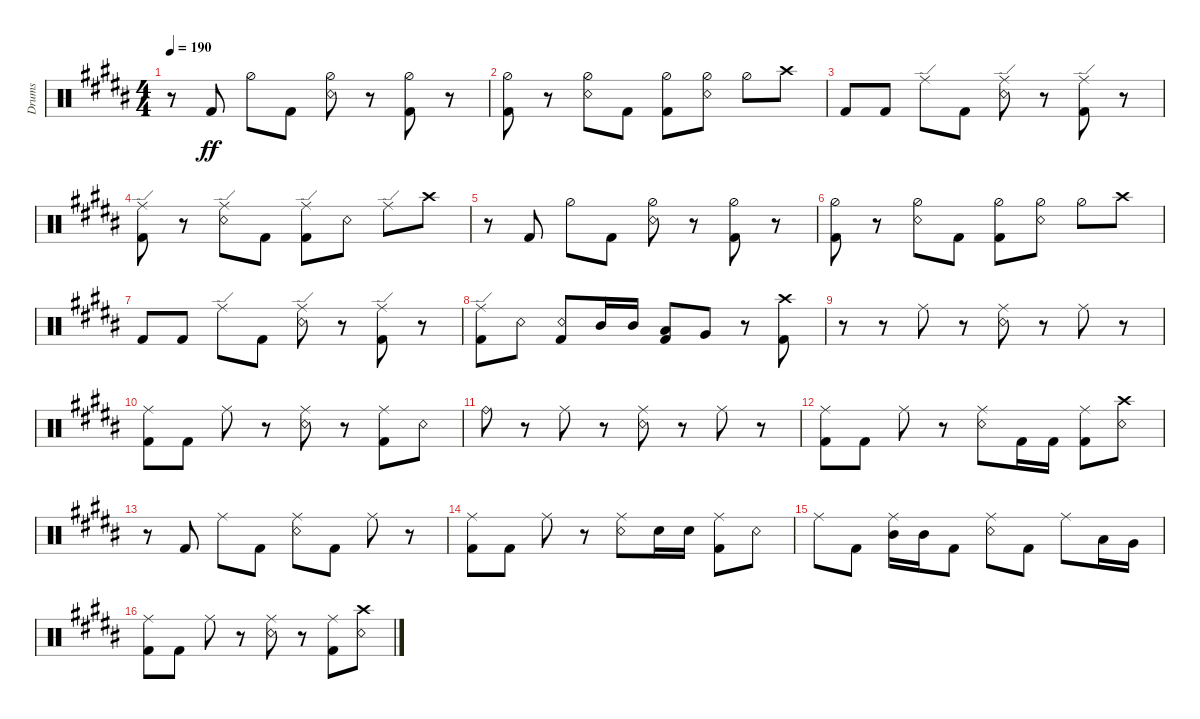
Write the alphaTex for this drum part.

\bracketExtendMode groupsimilarinstruments
\otherSystemsTrackNameOrientation horizontal
\track ("Drumkit" "Drums") {instrument percussion}
\staff {score}
\articulation defaults
\ts (4 4)
\tempo 190
\clef neutral
\ks b
r.8{dy ff} "Kick (hit) 2"{acc forcenatural}.8 "Hi-Hat (half)"{acc forcenatural}.8 "Kick (hit) 2"{acc forcenatural}.8 ("Snare (rim shot)"{acc forcenatural} "Hi-Hat (half)"{acc forcenatural}).8 r.8 ("Kick (hit) 2"{acc forcenatural} "Hi-Hat (half)"{acc forcenatural}).8 r.8 |
("Kick (hit) 2"{acc forcenatural} "Hi-Hat (half)"{acc forcenatural}).8 r.8 ("Snare (rim shot)"{acc forcenatural} "Hi-Hat (half)"{acc forcenatural}).8 "Kick (hit) 2"{acc forcenatural}.8 ("Kick (hit) 2"{acc forcenatural} "Hi-Hat (half)"{acc forcenatural}).8 ("Snare (rim shot)"{acc forcenatural} "Hi-Hat (half)"{acc forcenatural}).8 "Hi-Hat (half)"{acc forcenatural}.8 "Crash high (hit)"{acc forcenatural}.8 |
"Kick (hit) 2"{acc forcenatural}.8 "Kick (hit) 2"{acc forcenatural}.8 "Ride (edge)"{acc forcenatural}.8 "Kick (hit) 2"{acc forcenatural}.8 ("Snare (rim shot)"{acc forcenatural} "Ride (edge)"{acc forcenatural}).8 r.8 ("Kick (hit) 2"{acc forcenatural} "Ride (edge)"{acc forcenatural}).8 r.8 |
("Kick (hit) 2"{acc forcenatural} "Ride (edge)"{acc forcenatural}).8 r.8 ("Snare (rim shot)"{acc forcenatural} "Ride (edge)"{acc forcenatural}).8 "Kick (hit) 2"{acc forcenatural}.8 ("Kick (hit) 2"{acc forcenatural} "Ride (edge)"{acc forcenatural}).8 "Snare (rim shot)"{acc forcenatural}.8 "Ride (edge)"{acc forcenatural}.8 "Crash high (hit)"{acc forcenatural}.8 |
r.8 "Kick (hit) 2"{acc forcenatural}.8 "Hi-Hat (half)"{acc forcenatural}.8 "Kick (hit) 2"{acc forcenatural}.8 ("Snare (rim shot)"{acc forcenatural} "Hi-Hat (half)"{acc forcenatural}).8 r.8 ("Kick (hit) 2"{acc forcenatural} "Hi-Hat (half)"{acc forcenatural}).8 r.8 |
("Kick (hit) 2"{acc forcenatural} "Hi-Hat (half)"{acc forcenatural}).8 r.8 ("Snare (rim shot)"{acc forcenatural} "Hi-Hat (half)"{acc forcenatural}).8 "Kick (hit) 2"{acc forcenatural}.8 ("Kick (hit) 2"{acc forcenatural} "Hi-Hat (half)"{acc forcenatural}).8 ("Snare (rim shot)"{acc forcenatural} "Hi-Hat (half)"{acc forcenatural}).8 "Hi-Hat (half)"{acc forcenatural}.8 "Crash high (hit)"{acc forcenatural}.8 |
"Kick (hit) 2"{acc forcenatural}.8 "Kick (hit) 2"{acc forcenatural}.8 "Ride (edge)"{acc forcenatural}.8 "Kick (hit) 2"{acc forcenatural}.8 ("Snare (rim shot)"{acc forcenatural} "Ride (edge)"{acc forcenatural}).8 r.8 ("Kick (hit) 2"{acc forcenatural} "Ride (edge)"{acc forcenatural}).8 r.8 |
("Kick (hit) 2"{acc forcenatural} "Ride (edge)"{acc forcenatural}).8 "Snare (rim shot)"{acc forcenatural}.8 ("Snare (rim shot)"{acc forcenatural} "Kick (hit) 2"{acc forcenatural}).8 "Mid Tom (hit)"{acc forcenatural}.16 "Mid Tom (hit)"{acc forcenatural}.16 ("Low Tom (hit)"{acc forcenatural} "Kick (hit) 2"{acc forcenatural}).8 "Very Low Tom (hit)"{acc forcenatural}.8 r.8 ("Crash high (hit)"{acc forcenatural} "Kick (hit) 2"{acc forcenatural}).8 |
r.8 r.8 "Ride (middle)"{acc forcenatural}.8 r.8 ("Snare (rim shot)"{acc forcenatural} "Ride (middle)"{acc forcenatural}).8 r.8 "Ride (middle)"{acc forcenatural}.8 r.8 |
("Kick (hit) 2"{acc forcenatural} "Ride (middle)"{acc forcenatural}).8 "Kick (hit) 2"{acc forcenatural}.8 "Ride (middle)"{acc forcenatural}.8 r.8 ("Snare (rim shot)"{acc forcenatural} "Ride (middle)"{acc forcenatural}).8 r.8 ("Kick (hit) 2"{acc forcenatural} "Ride (middle)"{acc forcenatural}).8 "Snare (rim shot)"{acc forcenatural}.8 |
"Ride (bell)"{acc forcenatural}.8 r.8 "Ride (middle)"{acc forcenatural}.8 r.8 ("Snare (rim shot)"{acc forcenatural} "Ride (middle)"{acc forcenatural}).8 r.8 "Ride (middle)"{acc forcenatural}.8 r.8 |
("Kick (hit) 2"{acc forcenatural} "Ride (middle)"{acc forcenatural}).8 "Kick (hit) 2"{acc forcenatural}.8 "Ride (middle)"{acc forcenatural}.8 r.8 ("Snare (rim shot)"{acc forcenatural} "Ride (middle)"{acc forcenatural}).8 "Kick (hit) 2"{acc forcenatural}.16 "Kick (hit) 2"{acc forcenatural}.16 ("Kick (hit) 2"{acc forcenatural} "Ride (middle)"{acc forcenatural}).8 ("Crash high (hit)"{acc forcenatural} "Snare (rim shot)"{acc forcenatural}).8 |
r.8 "Kick (hit) 2"{acc forcenatural}.8 "Ride (middle)"{acc forcenatural}.8 "Kick (hit) 2"{acc forcenatural}.8 ("Snare (rim shot)"{acc forcenatural} "Ride (middle)"{acc forcenatural}).8 "Kick (hit) 2"{acc forcenatural}.8 "Ride (middle)"{acc forcenatural}.8 r.8 |
("Kick (hit) 2"{acc forcenatural} "Ride (middle)"{acc forcenatural}).8 "Kick (hit) 2"{acc forcenatural}.8 "Ride (middle)"{acc forcenatural}.8 r.8 ("Snare (rim shot)"{acc forcenatural} "Ride (middle)"{acc forcenatural}).8 "Snare (hit) 2"{acc forcenatural}.16 "Snare (hit) 2"{acc forcenatural}.16 ("Kick (hit) 2"{acc forcenatural} "Ride (middle)"{acc forcenatural}).8 "Snare (rim shot)"{acc forcenatural}.8 |
"Ride (middle)"{acc forcenatural}.8 "Kick (hit) 2"{acc forcenatural}.8 ("Ride (middle)"{acc forcenatural} "Mid Tom (hit)"{acc forcenatural}).16 "Mid Tom (hit)"{acc forcenatural}.16 "Kick (hit) 2"{acc forcenatural}.8 ("Snare (rim shot)"{acc forcenatural} "Ride (middle)"{acc forcenatural}).8 "Kick (hit) 2"{acc forcenatural}.8 "Ride (middle)"{acc forcenatural}.8 "Low Tom (hit)"{acc forcenatural}.16 "Very Low Tom (hit)"{acc forcenatural}.16 |
("Kick (hit) 2"{acc forcenatural} "Ride (middle)"{acc forcenatural}).8 "Kick (hit) 2"{acc forcenatural}.8 "Ride (middle)"{acc forcenatural}.8 r.8 ("Snare (rim shot)"{acc forcenatural} "Ride (middle)"{acc forcenatural}).8 r.8 ("Kick (hit) 2"{acc forcenatural} "Ride (middle)"{acc forcenatural}).8 ("Crash high (hit)"{acc forcenatural} "Snare (rim shot)"{acc forcenatural}).8
